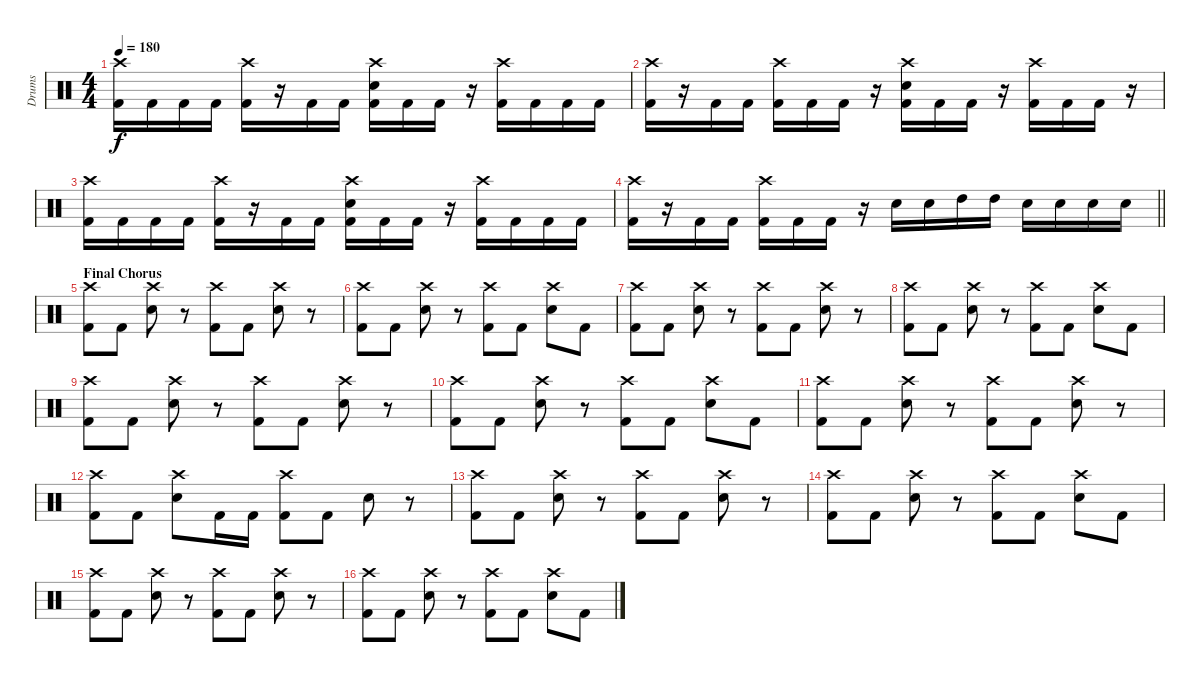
\track ("Drums" "Drums") {instrument percussion}
\staff {score}
\articulation defaults
\ts (4 4)
\tempo 180
\clef neutral
\ks c
("Crash high (hit)" "Kick (hit) 2").16{dy f} "Kick (hit) 2".16 "Kick (hit) 2".16 "Kick (hit) 2".16 ("Crash high (hit)" "Kick (hit) 2").16 r.16 "Kick (hit) 2".16 "Kick (hit) 2".16 ("Crash high (hit)" "Electric Snare (hit)" "Kick (hit) 2").16 "Kick (hit) 2".16 "Kick (hit) 2".16 r.16 ("Crash high (hit)" "Kick (hit) 2").16 "Kick (hit) 2".16 "Kick (hit) 2".16 "Kick (hit) 2".16 |
("Crash high (hit)" "Kick (hit) 2").16 r.16 "Kick (hit) 2".16 "Kick (hit) 2".16 ("Crash high (hit)" "Kick (hit) 2").16 "Kick (hit) 2".16 "Kick (hit) 2".16 r.16 ("Crash high (hit)" "Electric Snare (hit)" "Kick (hit) 2").16 "Kick (hit) 2".16 "Kick (hit) 2".16 r.16 ("Crash high (hit)" "Kick (hit) 2").16 "Kick (hit) 2".16 "Kick (hit) 2".16 r.16 |
("Crash high (hit)" "Kick (hit) 2").16 "Kick (hit) 2".16 "Kick (hit) 2".16 "Kick (hit) 2".16 ("Crash high (hit)" "Kick (hit) 2").16 r.16 "Kick (hit) 2".16 "Kick (hit) 2".16 ("Crash high (hit)" "Electric Snare (hit)" "Kick (hit) 2").16 "Kick (hit) 2".16 "Kick (hit) 2".16 r.16 ("Crash high (hit)" "Kick (hit) 2").16 "Kick (hit) 2".16 "Kick (hit) 2".16 "Kick (hit) 2".16 |
\barLineRight lightlight
("Crash high (hit)" "Kick (hit) 2").16 r.16 "Kick (hit) 2".16 "Kick (hit) 2".16 ("Crash high (hit)" "Kick (hit) 2").16 "Kick (hit) 2".16 "Kick (hit) 2".16 r.16 "Electric Snare (hit)".16 "Electric Snare (hit)".16 "High Tom (hit)".16 "High Tom (hit)".16 "Electric Snare (hit)".16 "Electric Snare (hit)".16 "Electric Snare (hit)".16 "Electric Snare (hit)".16 |
\section ("" "Final Chorus")
("Crash high (hit)" "Kick (hit) 2").8 "Kick (hit) 2".8 ("Crash high (hit)" "Electric Snare (hit)").8 r.8 ("Crash high (hit)" "Kick (hit) 2").8 "Kick (hit) 2".8 ("Crash high (hit)" "Electric Snare (hit)").8 r.8 |
("Crash high (hit)" "Kick (hit) 2").8 "Kick (hit) 2".8 ("Crash high (hit)" "Electric Snare (hit)").8 r.8 ("Crash high (hit)" "Kick (hit) 2").8 "Kick (hit) 2".8 ("Crash high (hit)" "Electric Snare (hit)").8 "Kick (hit) 2".8 |
("Crash high (hit)" "Kick (hit) 2").8 "Kick (hit) 2".8 ("Crash high (hit)" "Electric Snare (hit)").8 r.8 ("Crash high (hit)" "Kick (hit) 2").8 "Kick (hit) 2".8 ("Crash high (hit)" "Electric Snare (hit)").8 r.8 |
("Crash high (hit)" "Kick (hit) 2").8 "Kick (hit) 2".8 ("Crash high (hit)" "Electric Snare (hit)").8 r.8 ("Crash high (hit)" "Kick (hit) 2").8 "Kick (hit) 2".8 ("Crash high (hit)" "Electric Snare (hit)").8 "Kick (hit) 2".8 |
("Crash high (hit)" "Kick (hit) 2").8 "Kick (hit) 2".8 ("Crash high (hit)" "Electric Snare (hit)").8 r.8 ("Crash high (hit)" "Kick (hit) 2").8 "Kick (hit) 2".8 ("Crash high (hit)" "Electric Snare (hit)").8 r.8 |
("Crash high (hit)" "Kick (hit) 2").8 "Kick (hit) 2".8 ("Crash high (hit)" "Electric Snare (hit)").8 r.8 ("Crash high (hit)" "Kick (hit) 2").8 "Kick (hit) 2".8 ("Crash high (hit)" "Electric Snare (hit)").8 "Kick (hit) 2".8 |
("Crash high (hit)" "Kick (hit) 2").8 "Kick (hit) 2".8 ("Crash high (hit)" "Electric Snare (hit)").8 r.8 ("Crash high (hit)" "Kick (hit) 2").8 "Kick (hit) 2".8 ("Crash high (hit)" "Electric Snare (hit)").8 r.8 |
("Crash high (hit)" "Kick (hit) 2").8 "Kick (hit) 2".8 ("Crash high (hit)" "Electric Snare (hit)").8 "Kick (hit) 2".16 "Kick (hit) 2".16 ("Crash high (hit)" "Kick (hit) 2").8 "Kick (hit) 2".8 "Electric Snare (hit)".8 r.8 |
("Crash high (hit)" "Kick (hit) 2").8 "Kick (hit) 2".8 ("Crash high (hit)" "Electric Snare (hit)").8 r.8 ("Crash high (hit)" "Kick (hit) 2").8 "Kick (hit) 2".8 ("Crash high (hit)" "Electric Snare (hit)").8 r.8 |
("Crash high (hit)" "Kick (hit) 2").8 "Kick (hit) 2".8 ("Crash high (hit)" "Electric Snare (hit)").8 r.8 ("Crash high (hit)" "Kick (hit) 2").8 "Kick (hit) 2".8 ("Crash high (hit)" "Electric Snare (hit)").8 "Kick (hit) 2".8 |
("Crash high (hit)" "Kick (hit) 2").8 "Kick (hit) 2".8 ("Crash high (hit)" "Electric Snare (hit)").8 r.8 ("Crash high (hit)" "Kick (hit) 2").8 "Kick (hit) 2".8 ("Crash high (hit)" "Electric Snare (hit)").8 r.8 |
("Crash high (hit)" "Kick (hit) 2").8 "Kick (hit) 2".8 ("Crash high (hit)" "Electric Snare (hit)").8 r.8 ("Crash high (hit)" "Kick (hit) 2").8 "Kick (hit) 2".8 ("Crash high (hit)" "Electric Snare (hit)").8 "Kick (hit) 2".8
